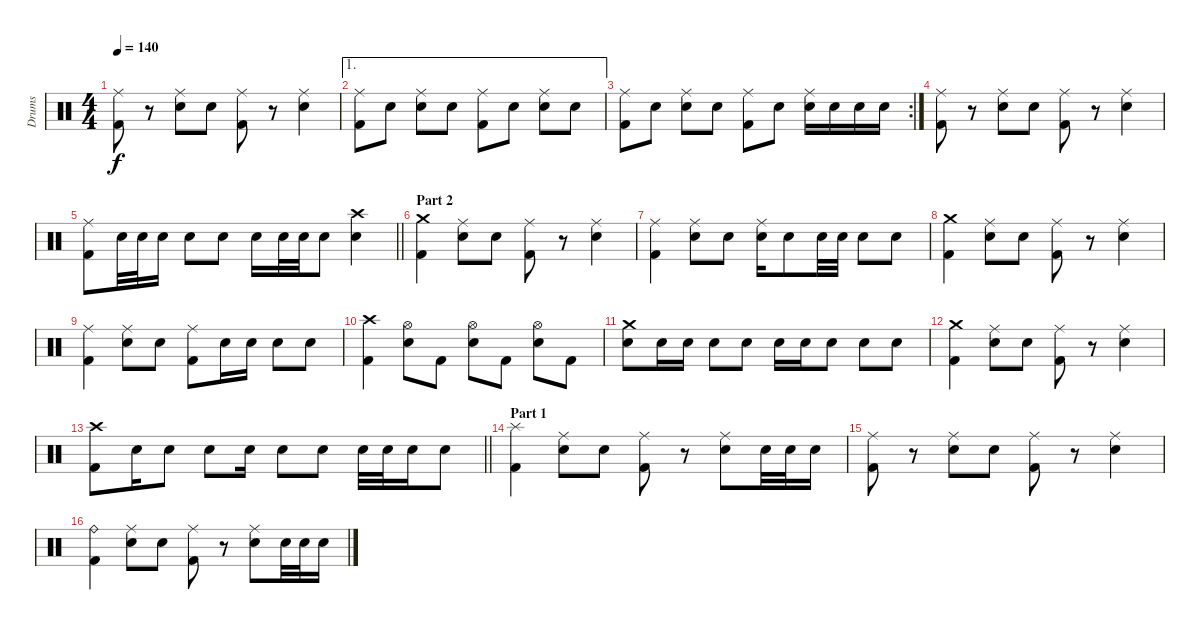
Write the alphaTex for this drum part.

\track ("Drums" "Drums") {instrument percussion}
\staff {score}
\articulation defaults
\ts (4 4)
\tempo 140
\clef neutral
\ks c
("Ride (middle)" "Kick (hit) 2").8{dy f} r.8 ("Ride (middle)" "Snare (hit) 2").8 "Snare (hit) 2".8 ("Ride (middle)" "Kick (hit) 2").8 r.8 ("Ride (middle)" "Snare (hit) 2").4 |
\ae 1
("Ride (middle)" "Kick (hit) 2").8 "Snare (hit) 2".8 ("Ride (middle)" "Snare (hit) 2").8 "Snare (hit) 2".8 ("Ride (middle)" "Kick (hit) 2").8 "Snare (hit) 2".8 ("Ride (middle)" "Snare (hit) 2").8 "Snare (hit) 2".8 |
\rc 2
("Ride (middle)" "Kick (hit) 2").8 "Snare (hit) 2".8 ("Ride (middle)" "Snare (hit) 2").8 "Snare (hit) 2".8 ("Ride (middle)" "Kick (hit) 2").8 "Snare (hit) 2".8 ("Ride (middle)" "Snare (hit) 2").16 "Snare (hit) 2".16 "Snare (hit) 2".16 "Snare (hit) 2".16 |
("Ride (middle)" "Kick (hit) 2").8 r.8 ("Ride (middle)" "Snare (hit) 2").8 "Snare (hit) 2".8 ("Ride (middle)" "Kick (hit) 2").8 r.8 ("Ride (middle)" "Snare (hit) 2").4 |
\barLineRight lightlight
("Ride (middle)" "Kick (hit) 2").8 "Snare (hit) 2".32 "Snare (hit) 2".32 "Snare (hit) 2".16 "Snare (hit) 2".8 "Snare (hit) 2".8 "Snare (hit) 2".16 "Snare (hit) 2".32 "Snare (hit) 2".32 "Snare (hit) 2".8 ("Crash high (hit)" "Snare (hit) 2").4 |
\section ("" "Part 2")
("Crash medium (hit)" "Kick (hit) 2").4 ("Ride (middle)" "Snare (hit) 2").8 "Snare (hit) 2".8 ("Ride (middle)" "Kick (hit) 2").8 r.8 ("Ride (middle)" "Snare (hit) 2").4 |
("Ride (middle)" "Kick (hit) 2").4 ("Ride (middle)" "Snare (hit) 2").8 "Snare (hit) 2".8 ("Ride (middle)" "Snare (hit) 2").16 "Snare (hit) 2".8 "Snare (hit) 2".32 "Snare (hit) 2".32 "Snare (hit) 2".8 "Snare (hit) 2".8 |
("Crash medium (hit)" "Kick (hit) 2").4 ("Ride (middle)" "Snare (hit) 2").8 "Snare (hit) 2".8 ("Ride (middle)" "Kick (hit) 2").8 r.8 ("Ride (middle)" "Snare (hit) 2").4 |
("Ride (middle)" "Kick (hit) 2").4 ("Ride (middle)" "Snare (hit) 2").8 "Snare (hit) 2".8 ("Ride (middle)" "Kick (hit) 2").8 "Snare (hit) 2".16 "Snare (hit) 2".16 "Snare (hit) 2".8 "Snare (hit) 2".8 |
("Crash high (hit)" "Kick (hit) 2").4 ("Hi-Hat (open)" "Snare (hit) 2").8 "Kick (hit) 2".8 ("Hi-Hat (open)" "Snare (hit) 2").8 "Kick (hit) 2".8 ("Hi-Hat (open)" "Snare (hit) 2").8 "Kick (hit) 2".8 |
("Crash medium (hit)" "Snare (hit) 2").8 "Snare (hit) 2".16 "Snare (hit) 2".16 "Snare (hit) 2".8 "Snare (hit) 2".8 "Snare (hit) 2".16 "Snare (hit) 2".16 "Snare (hit) 2".8 "Snare (hit) 2".8 "Snare (hit) 2".8 |
("Crash medium (hit)" "Kick (hit) 2").4 ("Ride (middle)" "Snare (hit) 2").8 "Snare (hit) 2".8 ("Ride (middle)" "Kick (hit) 2").8 r.8 ("Ride (middle)" "Snare (hit) 2").4 |
\barLineRight lightlight
("Crash high (hit)" "Kick (hit) 2").8 "Snare (hit) 2".16 "Snare (hit) 2".8 "Snare (hit) 2".8 "Snare (hit) 2".16 "Snare (hit) 2".8 "Snare (hit) 2".8 "Snare (hit) 2".32 "Snare (hit) 2".32 "Snare (hit) 2".16 "Snare (hit) 2".8 |
\section ("" "Part 1")
("Splash (hit)" "Kick (hit) 2").4 ("Ride (middle)" "Snare (hit) 2").8 "Snare (hit) 2".8 ("Ride (middle)" "Kick (hit) 2").8 r.8 ("Ride (middle)" "Snare (hit) 2").8 "Snare (hit) 2".32 "Snare (hit) 2".32 "Snare (hit) 2".16 |
("Ride (middle)" "Kick (hit) 2").8 r.8 ("Ride (middle)" "Snare (hit) 2").8 "Snare (hit) 2".8 ("Ride (middle)" "Kick (hit) 2").8 r.8 ("Ride (middle)" "Snare (hit) 2").4 |
("Ride (bell)" "Kick (hit) 2").4 ("Ride (middle)" "Snare (hit) 2").8 "Snare (hit) 2".8 ("Ride (middle)" "Kick (hit) 2").8 r.8 ("Ride (middle)" "Snare (hit) 2").8 "Snare (hit) 2".32 "Snare (hit) 2".32 "Snare (hit) 2".16
